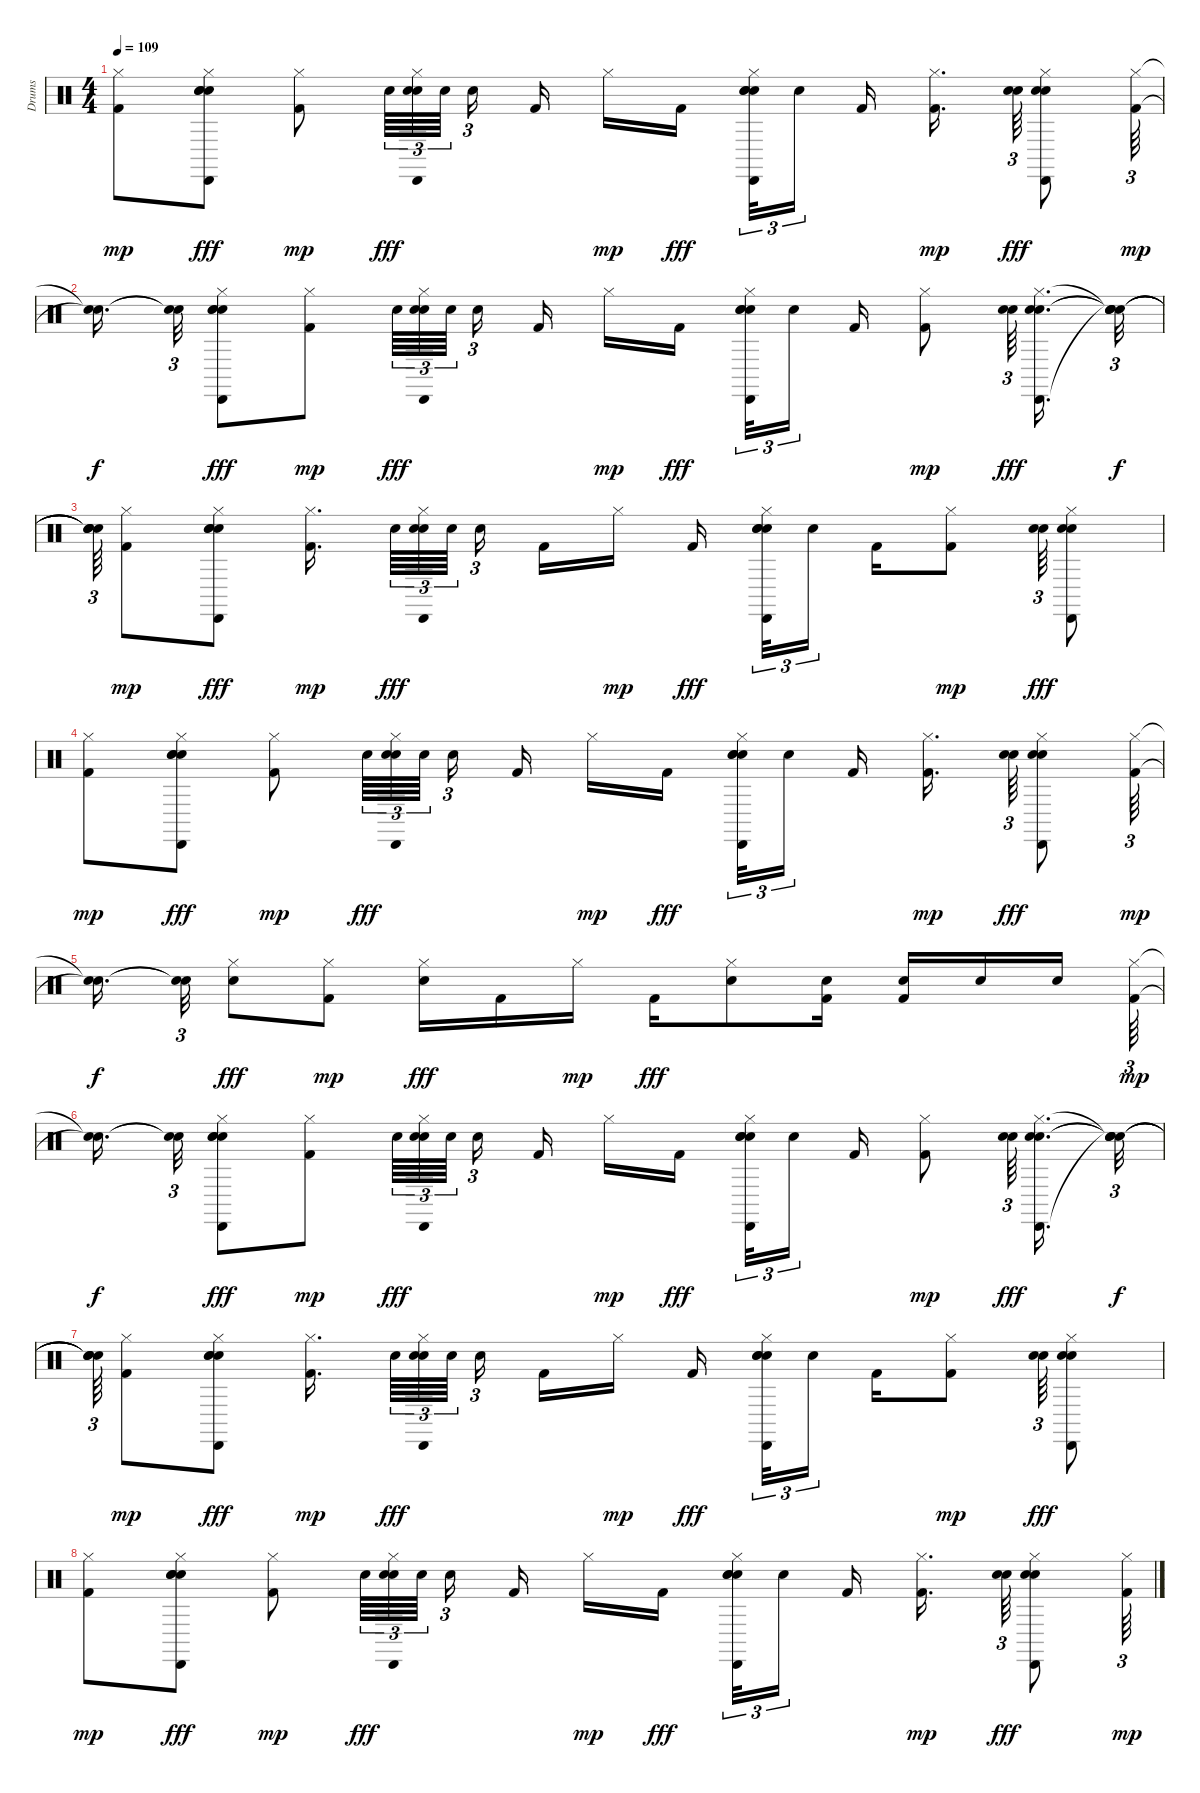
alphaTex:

\track ("Drums" "Drums") {instrument percussion}
\staff {score}
\articulation defaults
\ts (4 4)
\tempo 109
\clef neutral
\ks c
("Kick (hit) 2" "Hi-Hat (closed)").8{dy mp} ("Cabasa (hit)" "Snare (hit) 2" "Hi-Hat (closed)" "Hand Clap (hit)" "Hand Clap (hit)").8{dy fff} ("Kick (hit) 2" "Hi-Hat (closed)").8{dy mp} "Hand Clap (hit)".64{tu (3 2) dy fff} ("Cabasa (hit)" "Snare (hit) 2" "Hi-Hat (closed)" "Hand Clap (hit)").64{tu (3 2)} "Hand Clap (hit)".64{tu (3 2) beam splitsecondary} "Hand Clap (hit)".16{tu (3 2)} "Kick (hit) 2".16 "Hi-Hat (closed)".16{dy mp} "Kick (hit) 2".16{dy fff beam splitsecondary} ("Cabasa (hit)" "Snare (hit) 2" "Hi-Hat (closed)" "Hand Clap (hit)" "Hand Clap (hit)").32{tu (3 2)} "Hand Clap (hit)".16{tu (3 2) beam splitsecondary} "Kick (hit) 2".16 ("Kick (hit) 2" "Hi-Hat (closed)").16{d dy mp beam splitsecondary} ("Hand Clap (hit)" "Hand Clap (hit)").64{tu (3 2) dy fff} ("Cabasa (hit)" "Snare (hit) 2" "Hi-Hat (closed)" "Hand Clap (hit)").8 ("Kick (hit) 2" "Hi-Hat (closed)").64{tu (3 2) dy mp} |
("Snare (hit)"{t} "Snare (hit)"{t}).16{d dy f beam splitsecondary} ("Snare (hit)"{t} "Snare (hit)"{t}).32{tu (3 2)} ("Cabasa (hit)" "Snare (hit) 2" "Hi-Hat (closed)" "Hand Clap (hit)" "Hand Clap (hit)").8{dy fff} ("Kick (hit) 2" "Hi-Hat (closed)").8{dy mp} "Hand Clap (hit)".64{tu (3 2) dy fff} ("Cabasa (hit)" "Snare (hit) 2" "Hi-Hat (closed)" "Hand Clap (hit)").64{tu (3 2)} "Hand Clap (hit)".64{tu (3 2) beam splitsecondary} "Hand Clap (hit)".16{tu (3 2)} "Kick (hit) 2".16 "Hi-Hat (closed)".16{dy mp} "Kick (hit) 2".16{dy fff beam splitsecondary} ("Cabasa (hit)" "Snare (hit) 2" "Hi-Hat (closed)" "Hand Clap (hit)" "Hand Clap (hit)").32{tu (3 2)} "Hand Clap (hit)".16{tu (3 2) beam splitsecondary} "Kick (hit) 2".16 ("Kick (hit) 2" "Hi-Hat (closed)").8{dy mp} ("Hand Clap (hit)" "Hand Clap (hit)").64{tu (3 2) dy fff beam splitsecondary} ("Cabasa (hit)" "Snare (hit) 2" "Hi-Hat (closed)" "Hand Clap (hit)").16{d} ("Snare (hit)"{t} "Snare (hit)"{t} "Snare (hit)"{t} "Snare (hit)"{t}).32{tu (3 2) dy f} |
("Snare (hit)"{t} "Snare (hit)"{t} "Snare (hit)"{t} "Snare (hit)"{t}).64{tu (3 2)} ("Kick (hit) 2" "Hi-Hat (closed)").8{dy mp} ("Cabasa (hit)" "Snare (hit) 2" "Hi-Hat (closed)" "Hand Clap (hit)" "Hand Clap (hit)").8{dy fff} ("Kick (hit) 2" "Hi-Hat (closed)").16{d dy mp beam splitsecondary} "Hand Clap (hit)".64{tu (3 2) dy fff} ("Cabasa (hit)" "Snare (hit) 2" "Hi-Hat (closed)" "Hand Clap (hit)").64{tu (3 2)} "Hand Clap (hit)".64{tu (3 2) beam splitsecondary} "Hand Clap (hit)".16{tu (3 2) beam splitsecondary} "Kick (hit) 2".16 "Hi-Hat (closed)".16{dy mp} "Kick (hit) 2".16{dy fff beam splitsecondary} ("Cabasa (hit)" "Snare (hit) 2" "Hi-Hat (closed)" "Hand Clap (hit)" "Hand Clap (hit)").32{tu (3 2)} "Hand Clap (hit)".16{tu (3 2) beam splitsecondary} "Kick (hit) 2".16 ("Kick (hit) 2" "Hi-Hat (closed)").8{dy mp} ("Hand Clap (hit)" "Hand Clap (hit)").64{tu (3 2) dy fff} ("Cabasa (hit)" "Snare (hit) 2" "Hi-Hat (closed)" "Hand Clap (hit)").8 |
("Kick (hit) 2" "Hi-Hat (closed)").8{dy mp} ("Cabasa (hit)" "Snare (hit) 2" "Hi-Hat (closed)" "Hand Clap (hit)" "Hand Clap (hit)").8{dy fff} ("Kick (hit) 2" "Hi-Hat (closed)").8{dy mp} "Hand Clap (hit)".64{tu (3 2) dy fff} ("Cabasa (hit)" "Snare (hit) 2" "Hi-Hat (closed)" "Hand Clap (hit)").64{tu (3 2)} "Hand Clap (hit)".64{tu (3 2) beam splitsecondary} "Hand Clap (hit)".16{tu (3 2)} "Kick (hit) 2".16 "Hi-Hat (closed)".16{dy mp} "Kick (hit) 2".16{dy fff beam splitsecondary} ("Cabasa (hit)" "Snare (hit) 2" "Hi-Hat (closed)" "Hand Clap (hit)" "Hand Clap (hit)").32{tu (3 2)} "Hand Clap (hit)".16{tu (3 2) beam splitsecondary} "Kick (hit) 2".16 ("Kick (hit) 2" "Hi-Hat (closed)").16{d dy mp beam splitsecondary} ("Hand Clap (hit)" "Hand Clap (hit)").64{tu (3 2) dy fff} ("Cabasa (hit)" "Snare (hit) 2" "Hi-Hat (closed)" "Hand Clap (hit)").8 ("Kick (hit) 2" "Hi-Hat (closed)").64{tu (3 2) dy mp} |
("Snare (hit)"{t} "Snare (hit)"{t}).16{d dy f beam splitsecondary} ("Snare (hit)"{t} "Snare (hit)"{t}).32{tu (3 2)} ("Snare (hit) 2" "Hi-Hat (closed)").8{dy fff} ("Kick (hit) 2" "Hi-Hat (closed)").8{dy mp} ("Snare (hit) 2" "Hi-Hat (closed)").16{dy fff} "Kick (hit) 2".16 "Hi-Hat (closed)".16{dy mp} "Kick (hit) 2".16{dy fff} ("Snare (hit) 2" "Hi-Hat (closed)").8 ("Snare (hit) 2" "Kick (hit) 2").16 ("Snare (hit) 2" "Kick (hit) 2").16 "Snare (hit) 2".16 "Snare (hit) 2".16{beam splitsecondary} ("Kick (hit) 2" "Hi-Hat (closed)").64{tu (3 2) dy mp} |
("Snare (hit)"{t} "Snare (hit)"{t}).16{d dy f beam splitsecondary} ("Snare (hit)"{t} "Snare (hit)"{t}).32{tu (3 2)} ("Cabasa (hit)" "Snare (hit) 2" "Hi-Hat (closed)" "Hand Clap (hit)" "Hand Clap (hit)").8{dy fff} ("Kick (hit) 2" "Hi-Hat (closed)").8{dy mp} "Hand Clap (hit)".64{tu (3 2) dy fff} ("Cabasa (hit)" "Snare (hit) 2" "Hi-Hat (closed)" "Hand Clap (hit)").64{tu (3 2)} "Hand Clap (hit)".64{tu (3 2) beam splitsecondary} "Hand Clap (hit)".16{tu (3 2)} "Kick (hit) 2".16 "Hi-Hat (closed)".16{dy mp} "Kick (hit) 2".16{dy fff beam splitsecondary} ("Cabasa (hit)" "Snare (hit) 2" "Hi-Hat (closed)" "Hand Clap (hit)" "Hand Clap (hit)").32{tu (3 2)} "Hand Clap (hit)".16{tu (3 2) beam splitsecondary} "Kick (hit) 2".16 ("Kick (hit) 2" "Hi-Hat (closed)").8{dy mp} ("Hand Clap (hit)" "Hand Clap (hit)").64{tu (3 2) dy fff beam splitsecondary} ("Cabasa (hit)" "Snare (hit) 2" "Hi-Hat (closed)" "Hand Clap (hit)").16{d} ("Snare (hit)"{t} "Snare (hit)"{t} "Snare (hit)"{t} "Snare (hit)"{t}).32{tu (3 2) dy f} |
("Snare (hit)"{t} "Snare (hit)"{t} "Snare (hit)"{t} "Snare (hit)"{t}).64{tu (3 2)} ("Kick (hit) 2" "Hi-Hat (closed)").8{dy mp} ("Cabasa (hit)" "Snare (hit) 2" "Hi-Hat (closed)" "Hand Clap (hit)" "Hand Clap (hit)").8{dy fff} ("Kick (hit) 2" "Hi-Hat (closed)").16{d dy mp beam splitsecondary} "Hand Clap (hit)".64{tu (3 2) dy fff} ("Cabasa (hit)" "Snare (hit) 2" "Hi-Hat (closed)" "Hand Clap (hit)").64{tu (3 2)} "Hand Clap (hit)".64{tu (3 2) beam splitsecondary} "Hand Clap (hit)".16{tu (3 2) beam splitsecondary} "Kick (hit) 2".16 "Hi-Hat (closed)".16{dy mp} "Kick (hit) 2".16{dy fff beam splitsecondary} ("Cabasa (hit)" "Snare (hit) 2" "Hi-Hat (closed)" "Hand Clap (hit)" "Hand Clap (hit)").32{tu (3 2)} "Hand Clap (hit)".16{tu (3 2) beam splitsecondary} "Kick (hit) 2".16 ("Kick (hit) 2" "Hi-Hat (closed)").8{dy mp} ("Hand Clap (hit)" "Hand Clap (hit)").64{tu (3 2) dy fff} ("Cabasa (hit)" "Snare (hit) 2" "Hi-Hat (closed)" "Hand Clap (hit)").8 |
("Kick (hit) 2" "Hi-Hat (closed)").8{dy mp} ("Cabasa (hit)" "Snare (hit) 2" "Hi-Hat (closed)" "Hand Clap (hit)" "Hand Clap (hit)").8{dy fff} ("Kick (hit) 2" "Hi-Hat (closed)").8{dy mp} "Hand Clap (hit)".64{tu (3 2) dy fff} ("Cabasa (hit)" "Snare (hit) 2" "Hi-Hat (closed)" "Hand Clap (hit)").64{tu (3 2)} "Hand Clap (hit)".64{tu (3 2) beam splitsecondary} "Hand Clap (hit)".16{tu (3 2)} "Kick (hit) 2".16 "Hi-Hat (closed)".16{dy mp} "Kick (hit) 2".16{dy fff beam splitsecondary} ("Cabasa (hit)" "Snare (hit) 2" "Hi-Hat (closed)" "Hand Clap (hit)" "Hand Clap (hit)").32{tu (3 2)} "Hand Clap (hit)".16{tu (3 2) beam splitsecondary} "Kick (hit) 2".16 ("Kick (hit) 2" "Hi-Hat (closed)").16{d dy mp beam splitsecondary} ("Hand Clap (hit)" "Hand Clap (hit)").64{tu (3 2) dy fff} ("Cabasa (hit)" "Snare (hit) 2" "Hi-Hat (closed)" "Hand Clap (hit)").8 ("Kick (hit) 2" "Hi-Hat (closed)").64{tu (3 2) dy mp}
